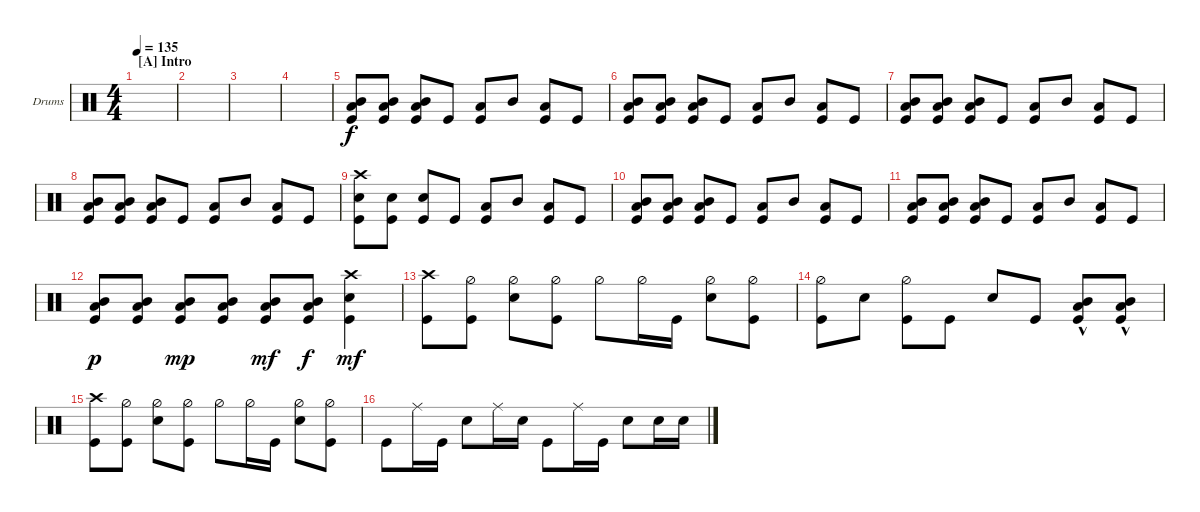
\defaultSystemsLayout 4
\bracketExtendMode groupsimilarinstruments
\firstSystemTrackNameOrientation horizontal
\otherSystemsTrackNameOrientation horizontal
\track ("Drumkit" "Drums") {instrument percussion}
\staff {score}
\articulation defaults
\ts (4 4)
\section ("A" "Intro")
\tempo 135
\clef neutral
\ks c
|
|
|
|
("Kick (hit)" "Mid Tom (hit)" "Low Tom (hit)").8 ("Kick (hit)" "Low Tom (hit)" "Mid Tom (hit)").8 ("Kick (hit)" "Low Tom (hit)" "Mid Tom (hit)").8 "Kick (hit)".8 ("Kick (hit)" "Low Tom (hit)").8 "Mid Tom (hit)".8 ("Kick (hit)" "Low Tom (hit)").8 "Kick (hit)".8 |
("Kick (hit)" "Mid Tom (hit)" "Low Tom (hit)").8 ("Kick (hit)" "Low Tom (hit)" "Mid Tom (hit)").8 ("Kick (hit)" "Low Tom (hit)" "Mid Tom (hit)").8 "Kick (hit)".8 ("Kick (hit)" "Low Tom (hit)").8 "Mid Tom (hit)".8 ("Kick (hit)" "Low Tom (hit)").8 "Kick (hit)".8 |
("Kick (hit)" "Mid Tom (hit)" "Low Tom (hit)").8 ("Kick (hit)" "Low Tom (hit)" "Mid Tom (hit)").8 ("Kick (hit)" "Low Tom (hit)" "Mid Tom (hit)").8 "Kick (hit)".8 ("Kick (hit)" "Low Tom (hit)").8 "Mid Tom (hit)".8 ("Kick (hit)" "Low Tom (hit)").8 "Kick (hit)".8 |
("Kick (hit)" "Mid Tom (hit)" "Low Tom (hit)").8 ("Kick (hit)" "Low Tom (hit)" "Mid Tom (hit)").8 ("Kick (hit)" "Low Tom (hit)" "Mid Tom (hit)").8 "Kick (hit)".8 ("Kick (hit)" "Low Tom (hit)").8 "Mid Tom (hit)".8 ("Kick (hit)" "Low Tom (hit)").8 "Kick (hit)".8 |
("Kick (hit)" "Snare (hit) 2" "Crash high (hit)").8 ("Kick (hit)" "Snare (hit) 2").8 ("Kick (hit)" "Snare (hit) 2").8 "Kick (hit)".8 ("Kick (hit)" "Low Tom (hit)").8 "Mid Tom (hit)".8 ("Kick (hit)" "Low Tom (hit)").8 "Kick (hit)".8 |
("Kick (hit)" "Mid Tom (hit)" "Low Tom (hit)").8 ("Kick (hit)" "Low Tom (hit)" "Mid Tom (hit)").8 ("Kick (hit)" "Low Tom (hit)" "Mid Tom (hit)").8 "Kick (hit)".8 ("Kick (hit)" "Low Tom (hit)").8 "Mid Tom (hit)".8 ("Kick (hit)" "Low Tom (hit)").8 "Kick (hit)".8 |
("Kick (hit)" "Mid Tom (hit)" "Low Tom (hit)").8 ("Kick (hit)" "Low Tom (hit)" "Mid Tom (hit)").8 ("Kick (hit)" "Low Tom (hit)" "Mid Tom (hit)").8 "Kick (hit)".8 ("Kick (hit)" "Low Tom (hit)").8 "Mid Tom (hit)".8 ("Kick (hit)" "Low Tom (hit)").8 "Kick (hit)".8 |
("Kick (hit)" "Low Tom (hit)" "Mid Tom (hit)").8{dy p} ("Kick (hit)" "Low Tom (hit)" "Mid Tom (hit)").8 ("Kick (hit)" "Low Tom (hit)" "Mid Tom (hit)").8{dy mp} ("Kick (hit)" "Low Tom (hit)" "Mid Tom (hit)").8 ("Kick (hit)" "Low Tom (hit)" "Mid Tom (hit)").8{dy mf} ("Kick (hit)" "Low Tom (hit)" "Mid Tom (hit)").8{dy f} ("Kick (hit)" "Snare (hit) 2" "Crash high (hit)").4{dy mf} |
("Kick (hit)" "Crash high (hit)").8 ("Hi-Hat (half)" "Kick (hit)").8 ("Hi-Hat (half)" "Snare (hit) 2").8 ("Kick (hit)" "Hi-Hat (half)").8 "Hi-Hat (half)".8 "Hi-Hat (half)".16 "Kick (hit)".16 ("Snare (hit) 2" "Hi-Hat (half)").8 ("Hi-Hat (half)" "Kick (hit)").8 |
("Hi-Hat (half)" "Kick (hit)").8 "Snare (hit) 2".8 ("Hi-Hat (half)" "Kick (hit)").8 "Kick (hit)".8 "Snare (hit) 2".8 "Kick (hit)".8 ("Mid Tom (hit)"{hac} "Low Tom (hit)"{hac} "Kick (hit)").8 ("Low Tom (hit)"{hac} "Mid Tom (hit)"{hac} "Kick (hit)").8 |
("Kick (hit)" "Crash high (hit)").8 ("Hi-Hat (half)" "Kick (hit)").8 ("Hi-Hat (half)" "Snare (hit) 2").8 ("Kick (hit)" "Hi-Hat (half)").8 "Hi-Hat (half)".8 "Hi-Hat (half)".16 "Kick (hit)".16 ("Snare (hit) 2" "Hi-Hat (half)").8 ("Hi-Hat (half)" "Kick (hit)").8 |
"Kick (hit)".8 "Ride (middle)".16 "Kick (hit)".16 "Snare (hit) 2".8 "Ride (middle)".16 "Snare (hit) 2".16 "Kick (hit)".8 "Ride (middle)".16 "Kick (hit)".16 "Snare (hit) 2".8 "Snare (hit) 2".16 "Snare (hit) 2".16
